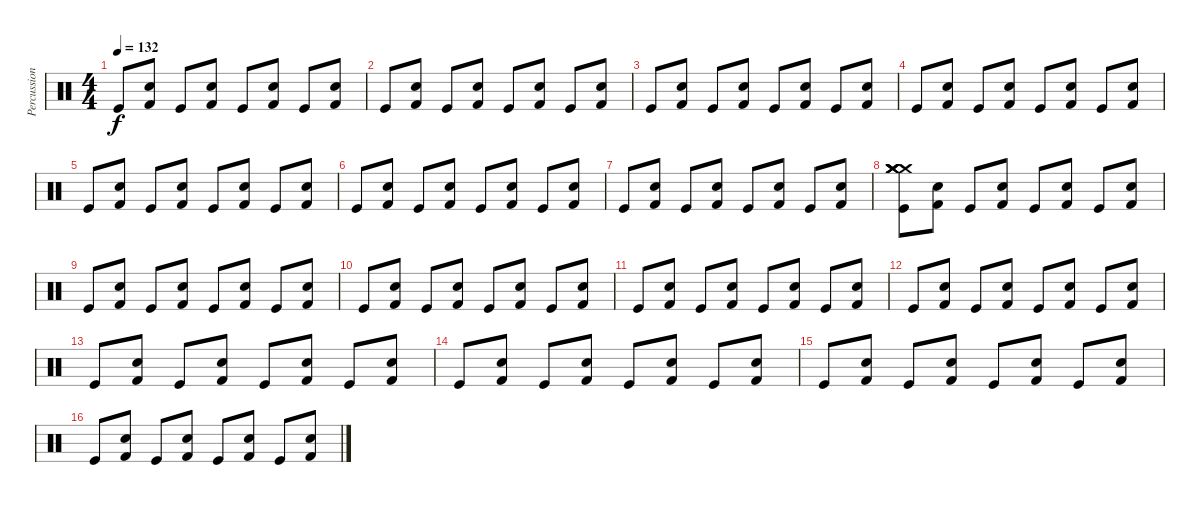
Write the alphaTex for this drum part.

\track ("Percussion" "Percussion") {instrument percussion}
\staff {score}
\articulation defaults
\ts (4 4)
\tempo 132
\clef neutral
\ks c "Kick (hit)".8{dy f}
("Electric Snare (hit)" "Kick (hit) 2").8 "Kick (hit)".8 ("Electric Snare (hit)" "Kick (hit) 2").8 "Kick (hit)".8 ("Electric Snare (hit)" "Kick (hit) 2").8 "Kick (hit)".8 ("Electric Snare (hit)" "Kick (hit) 2").8 |
"Kick (hit)".8 ("Electric Snare (hit)" "Kick (hit) 2").8 "Kick (hit)".8 ("Electric Snare (hit)" "Kick (hit) 2").8 "Kick (hit)".8 ("Electric Snare (hit)" "Kick (hit) 2").8 "Kick (hit)".8 ("Electric Snare (hit)" "Kick (hit) 2").8 |
"Kick (hit)".8 ("Electric Snare (hit)" "Kick (hit) 2").8 "Kick (hit)".8 ("Electric Snare (hit)" "Kick (hit) 2").8 "Kick (hit)".8 ("Electric Snare (hit)" "Kick (hit) 2").8 "Kick (hit)".8 ("Electric Snare (hit)" "Kick (hit) 2").8 |
"Kick (hit)".8 ("Electric Snare (hit)" "Kick (hit) 2").8 "Kick (hit)".8 ("Electric Snare (hit)" "Kick (hit) 2").8 "Kick (hit)".8 ("Electric Snare (hit)" "Kick (hit) 2").8 "Kick (hit)".8 ("Electric Snare (hit)" "Kick (hit) 2").8 |
"Kick (hit)".8 ("Electric Snare (hit)" "Kick (hit) 2").8 "Kick (hit)".8 ("Electric Snare (hit)" "Kick (hit) 2").8 "Kick (hit)".8 ("Electric Snare (hit)" "Kick (hit) 2").8 "Kick (hit)".8 ("Electric Snare (hit)" "Kick (hit) 2").8 |
"Kick (hit)".8 ("Electric Snare (hit)" "Kick (hit) 2").8 "Kick (hit)".8 ("Electric Snare (hit)" "Kick (hit) 2").8 "Kick (hit)".8 ("Electric Snare (hit)" "Kick (hit) 2").8 "Kick (hit)".8 ("Electric Snare (hit)" "Kick (hit) 2").8 |
"Kick (hit)".8 ("Electric Snare (hit)" "Kick (hit) 2").8 "Kick (hit)".8 ("Electric Snare (hit)" "Kick (hit) 2").8 "Kick (hit)".8 ("Electric Snare (hit)" "Kick (hit) 2").8 "Kick (hit)".8 ("Electric Snare (hit)" "Kick (hit) 2").8 |
("Kick (hit)" "Crash medium (hit)" "Crash medium (hit)" "Crash medium (hit)" "Crash medium (hit)" "Crash medium (hit)").8 ("Electric Snare (hit)" "Kick (hit) 2").8 "Kick (hit)".8 ("Electric Snare (hit)" "Kick (hit) 2").8 "Kick (hit)".8 ("Electric Snare (hit)" "Kick (hit) 2").8 "Kick (hit)".8 ("Electric Snare (hit)" "Kick (hit) 2").8 |
"Kick (hit)".8 ("Electric Snare (hit)" "Kick (hit) 2").8 "Kick (hit)".8 ("Electric Snare (hit)" "Kick (hit) 2").8 "Kick (hit)".8 ("Electric Snare (hit)" "Kick (hit) 2").8 "Kick (hit)".8 ("Electric Snare (hit)" "Kick (hit) 2").8 |
"Kick (hit)".8 ("Electric Snare (hit)" "Kick (hit) 2").8 "Kick (hit)".8 ("Electric Snare (hit)" "Kick (hit) 2").8 "Kick (hit)".8 ("Electric Snare (hit)" "Kick (hit) 2").8 "Kick (hit)".8 ("Electric Snare (hit)" "Kick (hit) 2").8 |
"Kick (hit)".8 ("Electric Snare (hit)" "Kick (hit) 2").8 "Kick (hit)".8 ("Electric Snare (hit)" "Kick (hit) 2").8 "Kick (hit)".8 ("Electric Snare (hit)" "Kick (hit) 2").8 "Kick (hit)".8 ("Electric Snare (hit)" "Kick (hit) 2").8 |
"Kick (hit)".8 ("Electric Snare (hit)" "Kick (hit) 2").8 "Kick (hit)".8 ("Electric Snare (hit)" "Kick (hit) 2").8 "Kick (hit)".8 ("Electric Snare (hit)" "Kick (hit) 2").8 "Kick (hit)".8 ("Electric Snare (hit)" "Kick (hit) 2").8 |
"Kick (hit)".8 ("Electric Snare (hit)" "Kick (hit) 2").8 "Kick (hit)".8 ("Electric Snare (hit)" "Kick (hit) 2").8 "Kick (hit)".8 ("Electric Snare (hit)" "Kick (hit) 2").8 "Kick (hit)".8 ("Electric Snare (hit)" "Kick (hit) 2").8 |
"Kick (hit)".8 ("Electric Snare (hit)" "Kick (hit) 2").8 "Kick (hit)".8 ("Electric Snare (hit)" "Kick (hit) 2").8 "Kick (hit)".8 ("Electric Snare (hit)" "Kick (hit) 2").8 "Kick (hit)".8 ("Electric Snare (hit)" "Kick (hit) 2").8 |
"Kick (hit)".8 ("Electric Snare (hit)" "Kick (hit) 2").8 "Kick (hit)".8 ("Electric Snare (hit)" "Kick (hit) 2").8 "Kick (hit)".8 ("Electric Snare (hit)" "Kick (hit) 2").8 "Kick (hit)".8 ("Electric Snare (hit)" "Kick (hit) 2").8 |
"Kick (hit)".8 ("Electric Snare (hit)" "Kick (hit) 2").8 "Kick (hit)".8 ("Electric Snare (hit)" "Kick (hit) 2").8 "Kick (hit)".8 ("Electric Snare (hit)" "Kick (hit) 2").8 "Kick (hit)".8 ("Electric Snare (hit)" "Kick (hit) 2").8
